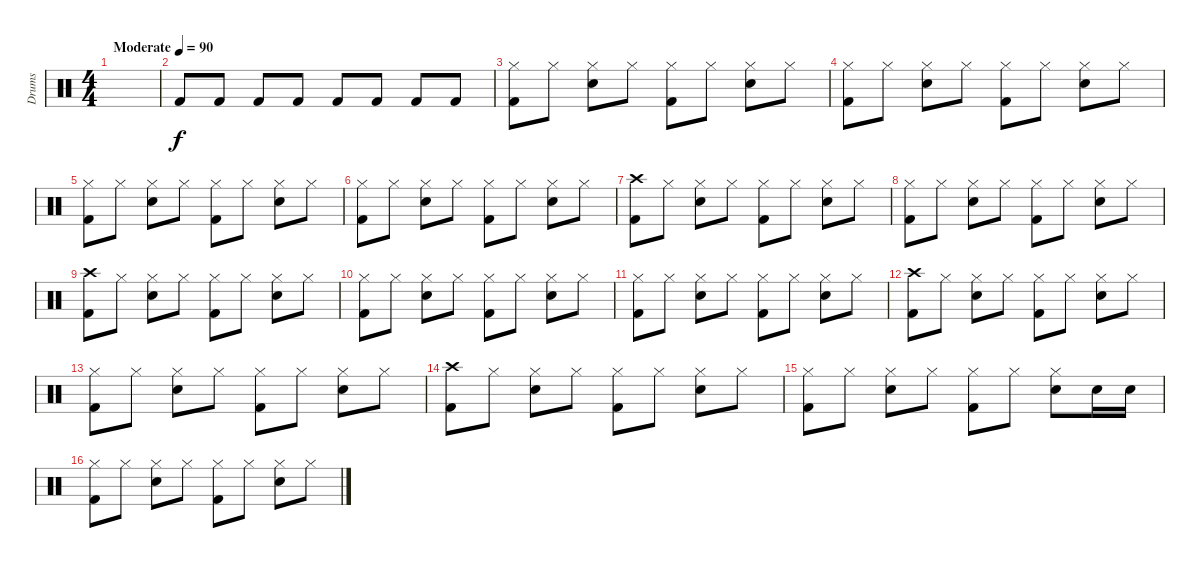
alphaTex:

\track ("Drums" "Drums") {instrument percussion}
\staff {score}
\articulation defaults
\ts (4 4)
\tempo (90 "Moderate")
\clef neutral
\ks c
|
"Kick (hit) 2".8 "Kick (hit) 2".8 "Kick (hit) 2".8 "Kick (hit) 2".8 "Kick (hit) 2".8 "Kick (hit) 2".8 "Kick (hit) 2".8 "Kick (hit) 2".8 |
("Hi-Hat (closed)" "Kick (hit) 2").8 "Hi-Hat (closed)".8 ("Hi-Hat (closed)" "Snare (hit) 2").8 "Hi-Hat (closed)".8 ("Hi-Hat (closed)" "Kick (hit) 2").8 "Hi-Hat (closed)".8 ("Hi-Hat (closed)" "Snare (hit) 2").8 "Hi-Hat (closed)".8 |
("Hi-Hat (closed)" "Kick (hit) 2").8 "Hi-Hat (closed)".8 ("Hi-Hat (closed)" "Snare (hit) 2").8 "Hi-Hat (closed)".8 ("Hi-Hat (closed)" "Kick (hit) 2").8 "Hi-Hat (closed)".8 ("Hi-Hat (closed)" "Snare (hit) 2").8 "Hi-Hat (closed)".8 |
("Hi-Hat (closed)" "Kick (hit) 2").8 "Hi-Hat (closed)".8 ("Hi-Hat (closed)" "Snare (hit) 2").8 "Hi-Hat (closed)".8 ("Hi-Hat (closed)" "Kick (hit) 2").8 "Hi-Hat (closed)".8 ("Hi-Hat (closed)" "Snare (hit) 2").8 "Hi-Hat (closed)".8 |
("Hi-Hat (closed)" "Kick (hit) 2").8 "Hi-Hat (closed)".8 ("Hi-Hat (closed)" "Snare (hit) 2").8 "Hi-Hat (closed)".8 ("Hi-Hat (closed)" "Kick (hit) 2").8 "Hi-Hat (closed)".8 ("Hi-Hat (closed)" "Snare (hit) 2").8 "Hi-Hat (closed)".8 |
("Crash high (hit)" "Kick (hit) 2").8 "Hi-Hat (closed)".8 ("Hi-Hat (closed)" "Snare (hit) 2").8 "Hi-Hat (closed)".8 ("Hi-Hat (closed)" "Kick (hit) 2").8 "Hi-Hat (closed)".8 ("Hi-Hat (closed)" "Snare (hit) 2").8 "Hi-Hat (closed)".8 |
("Hi-Hat (closed)" "Kick (hit) 2").8 "Hi-Hat (closed)".8 ("Hi-Hat (closed)" "Snare (hit) 2").8 "Hi-Hat (closed)".8 ("Hi-Hat (closed)" "Kick (hit) 2").8 "Hi-Hat (closed)".8 ("Hi-Hat (closed)" "Snare (hit) 2").8 "Hi-Hat (closed)".8 |
("Crash high (hit)" "Kick (hit) 2").8 "Hi-Hat (closed)".8 ("Hi-Hat (closed)" "Snare (hit) 2").8 "Hi-Hat (closed)".8 ("Hi-Hat (closed)" "Kick (hit) 2").8 "Hi-Hat (closed)".8 ("Hi-Hat (closed)" "Snare (hit) 2").8 "Hi-Hat (closed)".8 |
("Hi-Hat (closed)" "Kick (hit) 2").8 "Hi-Hat (closed)".8 ("Hi-Hat (closed)" "Snare (hit) 2").8 "Hi-Hat (closed)".8 ("Hi-Hat (closed)" "Kick (hit) 2").8 "Hi-Hat (closed)".8 ("Hi-Hat (closed)" "Snare (hit) 2").8 "Hi-Hat (closed)".8 |
("Hi-Hat (closed)" "Kick (hit) 2").8 "Hi-Hat (closed)".8 ("Hi-Hat (closed)" "Snare (hit) 2").8 "Hi-Hat (closed)".8 ("Hi-Hat (closed)" "Kick (hit) 2").8 "Hi-Hat (closed)".8 ("Hi-Hat (closed)" "Snare (hit) 2").8 "Hi-Hat (closed)".8 |
("Crash high (hit)" "Kick (hit) 2").8 "Hi-Hat (closed)".8 ("Hi-Hat (closed)" "Snare (hit) 2").8 "Hi-Hat (closed)".8 ("Hi-Hat (closed)" "Kick (hit) 2").8 "Hi-Hat (closed)".8 ("Hi-Hat (closed)" "Snare (hit) 2").8 "Hi-Hat (closed)".8 |
("Hi-Hat (closed)" "Kick (hit) 2").8 "Hi-Hat (closed)".8 ("Hi-Hat (closed)" "Snare (hit) 2").8 "Hi-Hat (closed)".8 ("Hi-Hat (closed)" "Kick (hit) 2").8 "Hi-Hat (closed)".8 ("Hi-Hat (closed)" "Snare (hit) 2").8 "Hi-Hat (closed)".8 |
("Crash high (hit)" "Kick (hit) 2").8 "Hi-Hat (closed)".8 ("Hi-Hat (closed)" "Snare (hit) 2").8 "Hi-Hat (closed)".8 ("Hi-Hat (closed)" "Kick (hit) 2").8 "Hi-Hat (closed)".8 ("Hi-Hat (closed)" "Snare (hit) 2").8 "Hi-Hat (closed)".8 |
("Hi-Hat (closed)" "Kick (hit) 2").8 "Hi-Hat (closed)".8 ("Hi-Hat (closed)" "Snare (hit) 2").8 "Hi-Hat (closed)".8 ("Hi-Hat (closed)" "Kick (hit) 2").8 "Hi-Hat (closed)".8 ("Hi-Hat (closed)" "Snare (hit) 2").8 "Snare (hit) 2".16 "Snare (hit) 2".16 |
("Hi-Hat (closed)" "Kick (hit) 2").8 "Hi-Hat (closed)".8 ("Hi-Hat (closed)" "Snare (hit) 2").8 "Hi-Hat (closed)".8 ("Hi-Hat (closed)" "Kick (hit) 2").8 "Hi-Hat (closed)".8 ("Hi-Hat (closed)" "Snare (hit) 2").8 "Hi-Hat (closed)".8
